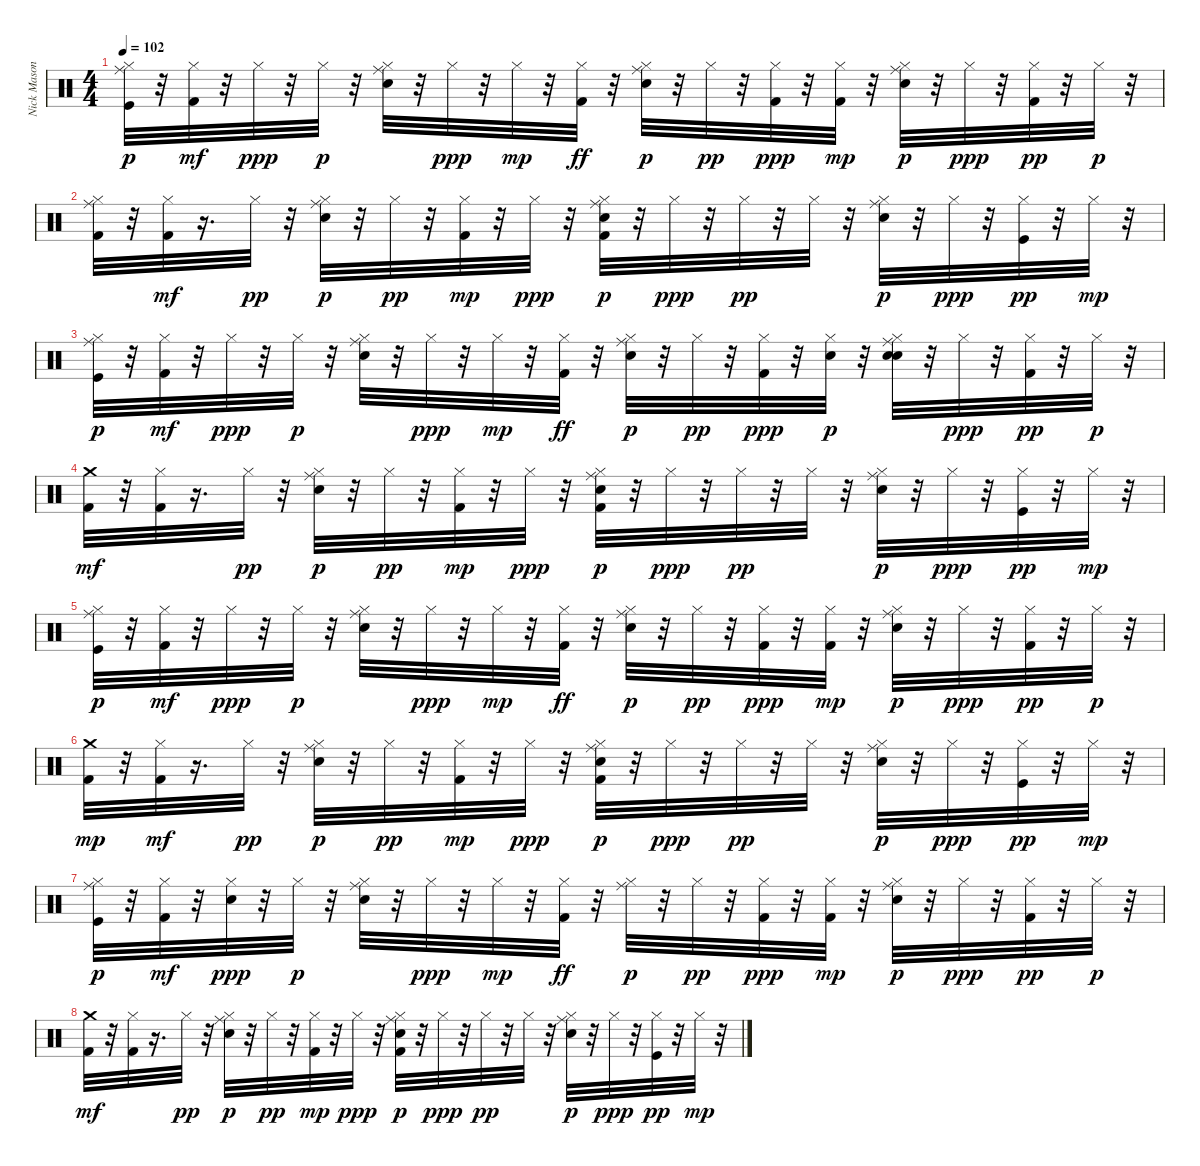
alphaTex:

\track ("Nick Mason / Gary Wallis" "Nick Mason") {instrument percussion}
\staff {score}
\articulation defaults
\ts (4 4)
\tempo 102
\clef neutral
\ks c
("Kick (hit)" "Hi-Hat (closed)" "Ride (middle)").32{dy p} r.32 ("Hi-Hat (closed)" "Kick (hit) 2").32{dy mf} r.32 "Hi-Hat (closed)".32{dy ppp} r.32 "Hi-Hat (closed)".32{dy p} r.32 ("Snare (hit) 2" "Hi-Hat (closed)" "Ride (middle)").32 r.32 "Hi-Hat (closed)".32{dy ppp} r.32 "Hi-Hat (closed)".32{dy mp} r.32 ("Hi-Hat (closed)" "Kick (hit) 2").32{dy ff} r.32 ("Electric Snare (hit)" "Hi-Hat (closed)" "Ride (middle)").32{dy p} r.32 "Hi-Hat (closed)".32{dy pp} r.32 ("Hi-Hat (closed)" "Kick (hit) 2").32{dy ppp} r.32 ("Hi-Hat (closed)" "Kick (hit) 2").32{dy mp} r.32 ("Snare (hit) 2" "Hi-Hat (closed)" "Ride (middle)").32{dy p} r.32 "Hi-Hat (closed)".32{dy ppp} r.32 ("Kick (hit) 2" "Hi-Hat (closed)").32{dy pp} r.32 "Hi-Hat (closed)".32{dy p} r.32 |
("Kick (hit) 2" "Hi-Hat (closed)" "Ride (middle)").32 r.32 ("Hi-Hat (closed)" "Kick (hit) 2").32{dy mf} r.16{d} "Hi-Hat (closed)".32{dy pp} r.32 ("Snare (hit) 2" "Hi-Hat (closed)" "Ride (middle)").32{dy p} r.32 "Hi-Hat (closed)".32{dy pp} r.32 ("Kick (hit) 2" "Hi-Hat (closed)").32{dy mp} r.32 "Hi-Hat (closed)".32{dy ppp} r.32 ("Kick (hit) 2" "Electric Snare (hit)" "Hi-Hat (closed)" "Ride (middle)").32{dy p} r.32 "Hi-Hat (closed)".32{dy ppp} r.32 "Hi-Hat (closed)".32{dy pp} r.32 "Hi-Hat (closed)".32 r.32 ("Snare (hit) 2" "Hi-Hat (closed)" "Ride (middle)").32{dy p} r.32 "Hi-Hat (closed)".32{dy ppp} r.32 ("Kick (hit)" "Hi-Hat (closed)").32{dy pp} r.32 "Hi-Hat (closed)".32{dy mp} r.32 |
("Kick (hit)" "Hi-Hat (closed)" "Ride (middle)").32{dy p} r.32 ("Hi-Hat (closed)" "Kick (hit) 2").32{dy mf} r.32 "Hi-Hat (closed)".32{dy ppp} r.32 "Hi-Hat (closed)".32{dy p} r.32 ("Snare (hit) 2" "Hi-Hat (closed)" "Ride (middle)").32 r.32 "Hi-Hat (closed)".32{dy ppp} r.32 "Hi-Hat (closed)".32{dy mp} r.32 ("Hi-Hat (closed)" "Kick (hit) 2").32{dy ff} r.32 ("Electric Snare (hit)" "Hi-Hat (closed)" "Ride (middle)").32{dy p} r.32 "Hi-Hat (closed)".32{dy pp} r.32 ("Hi-Hat (closed)" "Kick (hit) 2").32{dy ppp} r.32 ("Electric Snare (hit)" "Hi-Hat (closed)").32{dy p} r.32 ("Snare (hit) 2" "Electric Snare (hit)" "Hi-Hat (closed)" "Ride (middle)").32 r.32 "Hi-Hat (closed)".32{dy ppp} r.32 ("Kick (hit) 2" "Hi-Hat (closed)").32{dy pp} r.32 "Hi-Hat (closed)".32{dy p} r.32 |
("Kick (hit) 2" "Crash medium (hit)").32{dy mf} r.32 ("Hi-Hat (closed)" "Kick (hit) 2").32 r.16{d} "Hi-Hat (closed)".32{dy pp} r.32 ("Snare (hit) 2" "Hi-Hat (closed)" "Ride (middle)").32{dy p} r.32 "Hi-Hat (closed)".32{dy pp} r.32 ("Kick (hit) 2" "Hi-Hat (closed)").32{dy mp} r.32 "Hi-Hat (closed)".32{dy ppp} r.32 ("Kick (hit) 2" "Electric Snare (hit)" "Hi-Hat (closed)" "Ride (middle)").32{dy p} r.32 "Hi-Hat (closed)".32{dy ppp} r.32 "Hi-Hat (closed)".32{dy pp} r.32 "Hi-Hat (closed)".32 r.32 ("Snare (hit) 2" "Hi-Hat (closed)" "Ride (middle)").32{dy p} r.32 "Hi-Hat (closed)".32{dy ppp} r.32 ("Kick (hit)" "Hi-Hat (closed)").32{dy pp} r.32 "Hi-Hat (closed)".32{dy mp} r.32 |
("Kick (hit)" "Hi-Hat (closed)" "Ride (middle)").32{dy p} r.32 ("Hi-Hat (closed)" "Kick (hit) 2").32{dy mf} r.32 "Hi-Hat (closed)".32{dy ppp} r.32 "Hi-Hat (closed)".32{dy p} r.32 ("Snare (hit) 2" "Hi-Hat (closed)" "Ride (middle)").32 r.32 "Hi-Hat (closed)".32{dy ppp} r.32 "Hi-Hat (closed)".32{dy mp} r.32 ("Hi-Hat (closed)" "Kick (hit) 2").32{dy ff} r.32 ("Electric Snare (hit)" "Hi-Hat (closed)" "Ride (middle)").32{dy p} r.32 "Hi-Hat (closed)".32{dy pp} r.32 ("Hi-Hat (closed)" "Kick (hit) 2").32{dy ppp} r.32 ("Hi-Hat (closed)" "Kick (hit) 2").32{dy mp} r.32 ("Snare (hit) 2" "Hi-Hat (closed)" "Ride (middle)").32{dy p} r.32 "Hi-Hat (closed)".32{dy ppp} r.32 ("Kick (hit) 2" "Hi-Hat (closed)").32{dy pp} r.32 "Hi-Hat (closed)".32{dy p} r.32 |
("Kick (hit) 2" "Crash medium (hit)").32{dy mp} r.32 ("Hi-Hat (closed)" "Kick (hit) 2").32{dy mf} r.16{d} "Hi-Hat (closed)".32{dy pp} r.32 ("Snare (hit) 2" "Hi-Hat (closed)" "Ride (middle)").32{dy p} r.32 "Hi-Hat (closed)".32{dy pp} r.32 ("Kick (hit) 2" "Hi-Hat (closed)").32{dy mp} r.32 "Hi-Hat (closed)".32{dy ppp} r.32 ("Kick (hit) 2" "Electric Snare (hit)" "Hi-Hat (closed)" "Ride (middle)").32{dy p} r.32 "Hi-Hat (closed)".32{dy ppp} r.32 "Hi-Hat (closed)".32{dy pp} r.32 "Hi-Hat (closed)".32 r.32 ("Snare (hit) 2" "Hi-Hat (closed)" "Ride (middle)").32{dy p} r.32 "Hi-Hat (closed)".32{dy ppp} r.32 ("Kick (hit)" "Hi-Hat (closed)").32{dy pp} r.32 "Hi-Hat (closed)".32{dy mp} r.32 |
("Kick (hit)" "Hi-Hat (closed)" "Ride (middle)").32{dy p} r.32 ("Hi-Hat (closed)" "Kick (hit) 2").32{dy mf} r.32 ("Electric Snare (hit)" "Hi-Hat (closed)").32{dy ppp} r.32 "Hi-Hat (closed)".32{dy p} r.32 ("Snare (hit) 2" "Hi-Hat (closed)" "Ride (middle)").32 r.32 "Hi-Hat (closed)".32{dy ppp} r.32 "Hi-Hat (closed)".32{dy mp} r.32 ("Hi-Hat (closed)" "Kick (hit) 2").32{dy ff} r.32 ("Hi-Hat (closed)" "Ride (middle)").32{dy p} r.32 "Hi-Hat (closed)".32{dy pp} r.32 ("Hi-Hat (closed)" "Kick (hit) 2").32{dy ppp} r.32 ("Hi-Hat (closed)" "Kick (hit) 2").32{dy mp} r.32 ("Snare (hit) 2" "Hi-Hat (closed)" "Ride (middle)").32{dy p} r.32 "Hi-Hat (closed)".32{dy ppp} r.32 ("Kick (hit) 2" "Hi-Hat (closed)").32{dy pp} r.32 "Hi-Hat (closed)".32{dy p} r.32 |
("Kick (hit) 2" "Crash medium (hit)").32{dy mf} r.32 ("Hi-Hat (closed)" "Kick (hit) 2").32 r.16{d} "Hi-Hat (closed)".32{dy pp} r.32 ("Snare (hit) 2" "Hi-Hat (closed)" "Ride (middle)").32{dy p} r.32 "Hi-Hat (closed)".32{dy pp} r.32 ("Kick (hit) 2" "Hi-Hat (closed)").32{dy mp} r.32 "Hi-Hat (closed)".32{dy ppp} r.32 ("Kick (hit) 2" "Electric Snare (hit)" "Hi-Hat (closed)" "Ride (middle)").32{dy p} r.32 "Hi-Hat (closed)".32{dy ppp} r.32 "Hi-Hat (closed)".32{dy pp} r.32 "Hi-Hat (closed)".32 r.32 ("Snare (hit) 2" "Hi-Hat (closed)" "Ride (middle)").32{dy p} r.32 "Hi-Hat (closed)".32{dy ppp} r.32 ("Kick (hit)" "Hi-Hat (closed)").32{dy pp} r.32 "Hi-Hat (closed)".32{dy mp} r.32
